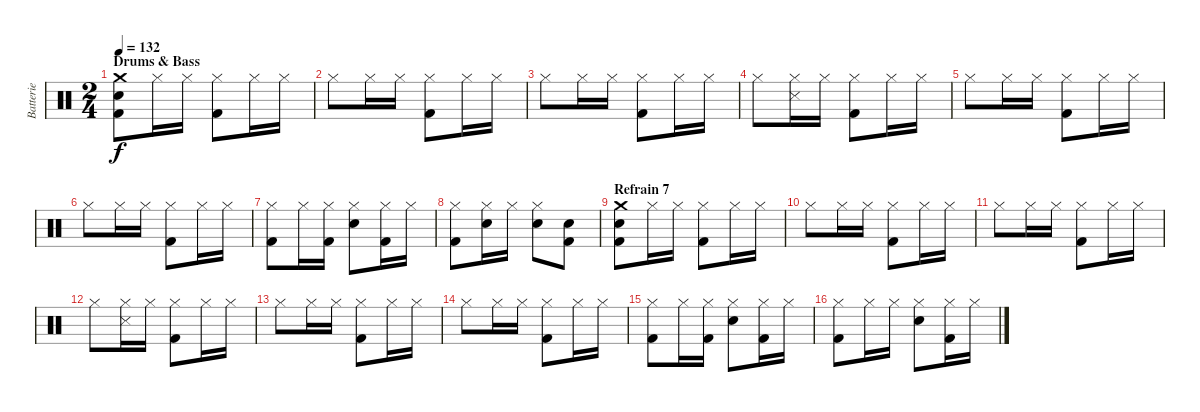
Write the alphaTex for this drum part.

\track ("Batterie" "Batterie") {instrument percussion}
\staff {score}
\articulation defaults
\ts (2 4)
\section ("" "Drums & Bass")
\tempo 132
\clef neutral
\ks c
("Crash medium (hit)" "Snare (hit) 2" "Kick (hit) 2").8{dy f} "Hi-Hat (closed)".16 "Hi-Hat (closed)".16 ("Hi-Hat (closed)" "Kick (hit) 2").8 "Hi-Hat (closed)".16 "Hi-Hat (closed)".16 |
"Hi-Hat (closed)".8 "Hi-Hat (closed)".16 "Hi-Hat (closed)".16 ("Hi-Hat (closed)" "Kick (hit) 2").8 "Hi-Hat (closed)".16 "Hi-Hat (closed)".16 |
"Hi-Hat (closed)".8 "Hi-Hat (closed)".16 "Hi-Hat (closed)".16 ("Hi-Hat (closed)" "Kick (hit) 2").8 "Hi-Hat (closed)".16 "Hi-Hat (closed)".16 |
"Hi-Hat (closed)".8 ("Hi-Hat (closed)" "Snare (side stick) 3").16 "Hi-Hat (closed)".16 ("Hi-Hat (closed)" "Kick (hit) 2").8 "Hi-Hat (closed)".16 "Hi-Hat (closed)".16 |
"Hi-Hat (closed)".8 "Hi-Hat (closed)".16 "Hi-Hat (closed)".16 ("Hi-Hat (closed)" "Kick (hit) 2").8 "Hi-Hat (closed)".16 "Hi-Hat (closed)".16 |
"Hi-Hat (closed)".8 "Hi-Hat (closed)".16 "Hi-Hat (closed)".16 ("Hi-Hat (closed)" "Kick (hit) 2").8 "Hi-Hat (closed)".16 "Hi-Hat (closed)".16 |
("Hi-Hat (closed)" "Kick (hit) 2").8 "Hi-Hat (closed)".16 ("Hi-Hat (closed)" "Kick (hit) 2").16 ("Hi-Hat (closed)" "Snare (hit) 2").8 ("Hi-Hat (closed)" "Kick (hit) 2").16 "Hi-Hat (closed)".16 |
("Hi-Hat (closed)" "Kick (hit) 2").8 ("Hi-Hat (closed)" "Snare (hit) 2").16 "Hi-Hat (closed)".16 ("Hi-Hat (closed)" "Snare (hit) 2").8 ("Snare (hit) 2" "Kick (hit) 2").8 |
\section ("" "Refrain 7")
("Crash medium (hit)" "Snare (hit) 2" "Kick (hit) 2").8 "Hi-Hat (closed)".16 "Hi-Hat (closed)".16 ("Hi-Hat (closed)" "Kick (hit) 2").8 "Hi-Hat (closed)".16 "Hi-Hat (closed)".16 |
"Hi-Hat (closed)".8 "Hi-Hat (closed)".16 "Hi-Hat (closed)".16 ("Hi-Hat (closed)" "Kick (hit) 2").8 "Hi-Hat (closed)".16 "Hi-Hat (closed)".16 |
"Hi-Hat (closed)".8 "Hi-Hat (closed)".16 "Hi-Hat (closed)".16 ("Hi-Hat (closed)" "Kick (hit) 2").8 "Hi-Hat (closed)".16 "Hi-Hat (closed)".16 |
"Hi-Hat (closed)".8 ("Hi-Hat (closed)" "Snare (side stick) 3").16 "Hi-Hat (closed)".16 ("Hi-Hat (closed)" "Kick (hit) 2").8 "Hi-Hat (closed)".16 "Hi-Hat (closed)".16 |
"Hi-Hat (closed)".8 "Hi-Hat (closed)".16 "Hi-Hat (closed)".16 ("Hi-Hat (closed)" "Kick (hit) 2").8 "Hi-Hat (closed)".16 "Hi-Hat (closed)".16 |
"Hi-Hat (closed)".8 "Hi-Hat (closed)".16 "Hi-Hat (closed)".16 ("Hi-Hat (closed)" "Kick (hit) 2").8 "Hi-Hat (closed)".16 "Hi-Hat (closed)".16 |
("Hi-Hat (closed)" "Kick (hit) 2").8 "Hi-Hat (closed)".16 ("Hi-Hat (closed)" "Kick (hit) 2").16 ("Hi-Hat (closed)" "Snare (hit) 2").8 ("Hi-Hat (closed)" "Kick (hit) 2").16 "Hi-Hat (closed)".16 |
("Hi-Hat (closed)" "Kick (hit) 2").8 "Hi-Hat (closed)".16 "Hi-Hat (closed)".16 ("Hi-Hat (closed)" "Snare (hit) 2").8 ("Hi-Hat (closed)" "Kick (hit) 2").16 "Hi-Hat (closed)".16
